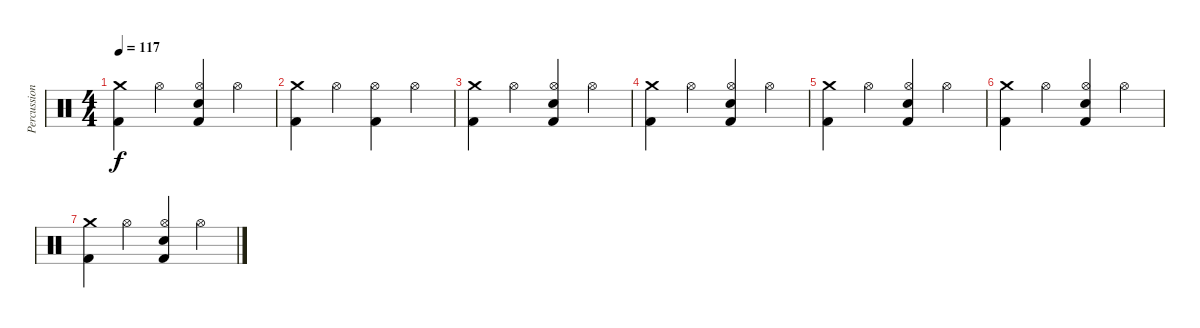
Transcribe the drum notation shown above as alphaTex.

\track ("Percussions" "Percussion") {instrument percussion}
\staff {score}
\articulation defaults
\ts (4 4)
\tempo 117
\clef neutral
\ks c
("Crash medium (hit)" "Kick (hit) 2").4{dy f} "Hi-Hat (open)".4 ("Hi-Hat (open)" "Electric Snare (hit)" "Kick (hit) 2"{tr (36 16)}).4 "Hi-Hat (open)".4 |
("Crash medium (hit)" "Kick (hit) 2").4 "Hi-Hat (open)".4 ("Hi-Hat (open)" "Kick (hit) 2"{tr (36 16)}).4 "Hi-Hat (open)".4 |
("Crash medium (hit)" "Kick (hit) 2").4 "Hi-Hat (open)".4 ("Hi-Hat (open)" "Electric Snare (hit)" "Kick (hit) 2"{tr (36 16)}).4 "Hi-Hat (open)".4 |
("Crash medium (hit)" "Kick (hit) 2").4 "Hi-Hat (open)".4 ("Hi-Hat (open)" "Electric Snare (hit)" "Kick (hit) 2"{tr (36 16)}).4 "Hi-Hat (open)".4 |
("Crash medium (hit)" "Kick (hit) 2").4 "Hi-Hat (open)".4 ("Hi-Hat (open)" "Electric Snare (hit)" "Kick (hit) 2"{tr (36 16)}).4 "Hi-Hat (open)".4 |
("Crash medium (hit)" "Kick (hit) 2").4 "Hi-Hat (open)".4 ("Hi-Hat (open)" "Electric Snare (hit)" "Kick (hit) 2"{tr (36 16)}).4 "Hi-Hat (open)".4 |
("Crash medium (hit)" "Kick (hit) 2").4 "Hi-Hat (open)".4 ("Hi-Hat (open)" "Electric Snare (hit)" "Kick (hit) 2"{tr (36 16)}).4 "Hi-Hat (open)".4
